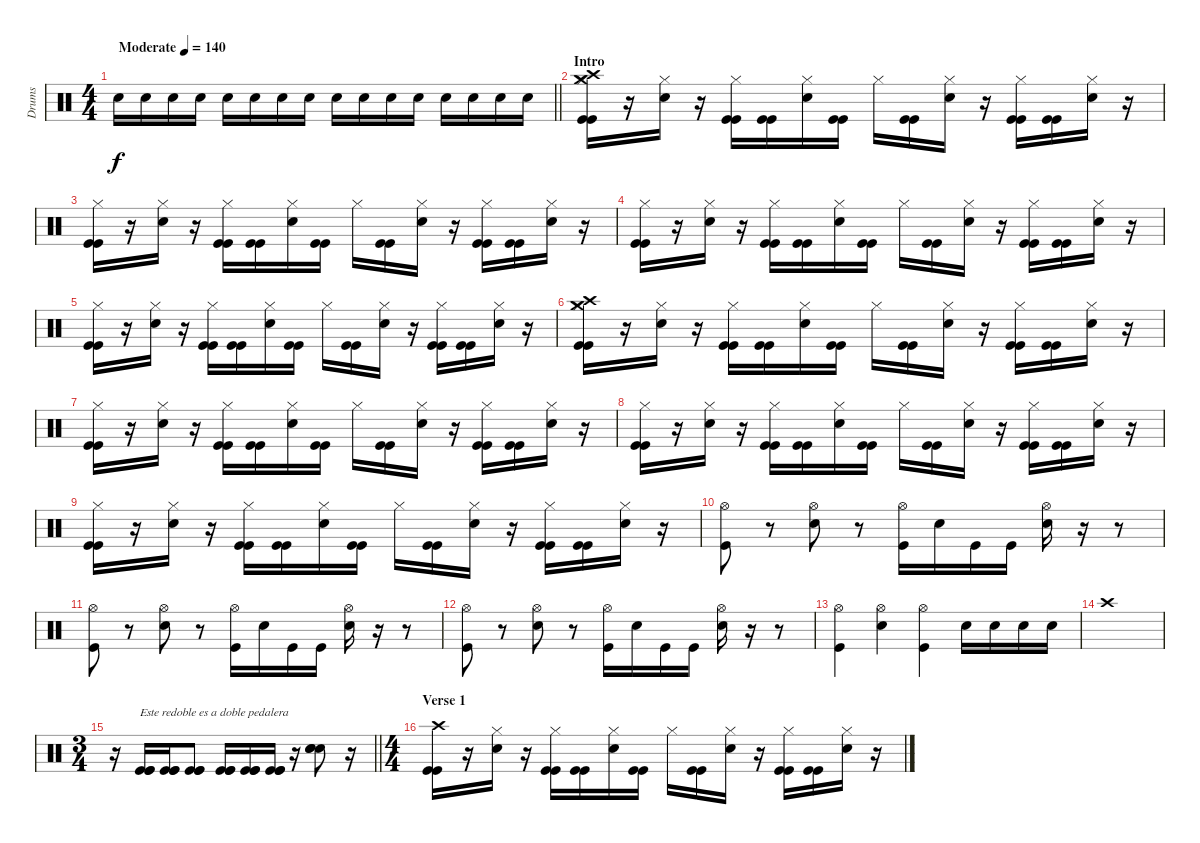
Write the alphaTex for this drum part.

\track ("Drums" "Drums") {instrument percussion}
\staff {score}
\articulation defaults
\ts (4 4)
\tempo (140 "Moderate")
\clef neutral
\barLineRight lightlight
\ks c "Snare (hit) 2".16{dy f} "Snare (hit) 2".16 "Snare (hit) 2".16 "Snare (hit) 2".16 "Snare (hit) 2".16 "Snare (hit) 2".16 "Snare (hit) 2".16 "Snare (hit) 2".16 "Snare (hit) 2".16 "Snare (hit) 2".16 "Snare (hit) 2".16 "Snare (hit) 2".16 "Snare (hit) 2".16 "Snare (hit) 2".16 "Snare (hit) 2".16 "Snare (hit) 2".16
|
\section ("" "Intro")
("Crash medium (hit)" "Crash high (hit)" "Hi-Hat (closed)" "Kick (hit)" "Kick (hit)").16 r.16 ("Hi-Hat (closed)" "Snare (hit) 2").16 r.16 ("Hi-Hat (closed)" "Kick (hit)" "Kick (hit)").16 ("Kick (hit)" "Kick (hit)").16 ("Hi-Hat (closed)" "Snare (hit) 2").16 ("Kick (hit)" "Kick (hit)").16 "Hi-Hat (closed)".16 ("Kick (hit)" "Kick (hit)").16 ("Hi-Hat (closed)" "Snare (hit) 2").16 r.16 ("Hi-Hat (closed)" "Kick (hit)" "Kick (hit)").16 ("Kick (hit)" "Kick (hit)").16 ("Hi-Hat (closed)" "Snare (hit) 2").16 r.16 |
("Hi-Hat (closed)" "Kick (hit)" "Kick (hit)").16 r.16 ("Hi-Hat (closed)" "Snare (hit) 2").16 r.16 ("Hi-Hat (closed)" "Kick (hit)" "Kick (hit)").16 ("Kick (hit)" "Kick (hit)").16 ("Hi-Hat (closed)" "Snare (hit) 2").16 ("Kick (hit)" "Kick (hit)").16 "Hi-Hat (closed)".16 ("Kick (hit)" "Kick (hit)").16 ("Hi-Hat (closed)" "Snare (hit) 2").16 r.16 ("Hi-Hat (closed)" "Kick (hit)" "Kick (hit)").16 ("Kick (hit)" "Kick (hit)").16 ("Hi-Hat (closed)" "Snare (hit) 2").16 r.16 |
("Hi-Hat (closed)" "Kick (hit)" "Kick (hit)").16 r.16 ("Hi-Hat (closed)" "Snare (hit) 2").16 r.16 ("Hi-Hat (closed)" "Kick (hit)" "Kick (hit)").16 ("Kick (hit)" "Kick (hit)").16 ("Hi-Hat (closed)" "Snare (hit) 2").16 ("Kick (hit)" "Kick (hit)").16 "Hi-Hat (closed)".16 ("Kick (hit)" "Kick (hit)").16 ("Hi-Hat (closed)" "Snare (hit) 2").16 r.16 ("Hi-Hat (closed)" "Kick (hit)" "Kick (hit)").16 ("Kick (hit)" "Kick (hit)").16 ("Hi-Hat (closed)" "Snare (hit) 2").16 r.16 |
("Hi-Hat (closed)" "Kick (hit)" "Kick (hit)").16 r.16 ("Hi-Hat (closed)" "Snare (hit) 2").16 r.16 ("Hi-Hat (closed)" "Kick (hit)" "Kick (hit)").16 ("Kick (hit)" "Kick (hit)").16 ("Hi-Hat (closed)" "Snare (hit) 2").16 ("Kick (hit)" "Kick (hit)").16 "Hi-Hat (closed)".16 ("Kick (hit)" "Kick (hit)").16 ("Hi-Hat (closed)" "Snare (hit) 2").16 r.16 ("Hi-Hat (closed)" "Kick (hit)" "Kick (hit)").16 ("Kick (hit)" "Kick (hit)").16 ("Hi-Hat (closed)" "Snare (hit) 2").16 r.16 |
("Crash medium (hit)" "Crash high (hit)" "Hi-Hat (closed)" "Kick (hit)" "Kick (hit)").16 r.16 ("Hi-Hat (closed)" "Snare (hit) 2").16 r.16 ("Hi-Hat (closed)" "Kick (hit)" "Kick (hit)").16 ("Kick (hit)" "Kick (hit)").16 ("Hi-Hat (closed)" "Snare (hit) 2").16 ("Kick (hit)" "Kick (hit)").16 "Hi-Hat (closed)".16 ("Kick (hit)" "Kick (hit)").16 ("Hi-Hat (closed)" "Snare (hit) 2").16 r.16 ("Hi-Hat (closed)" "Kick (hit)" "Kick (hit)").16 ("Kick (hit)" "Kick (hit)").16 ("Hi-Hat (closed)" "Snare (hit) 2").16 r.16 |
("Hi-Hat (closed)" "Kick (hit)" "Kick (hit)").16 r.16 ("Hi-Hat (closed)" "Snare (hit) 2").16 r.16 ("Hi-Hat (closed)" "Kick (hit)" "Kick (hit)").16 ("Kick (hit)" "Kick (hit)").16 ("Hi-Hat (closed)" "Snare (hit) 2").16 ("Kick (hit)" "Kick (hit)").16 "Hi-Hat (closed)".16 ("Kick (hit)" "Kick (hit)").16 ("Hi-Hat (closed)" "Snare (hit) 2").16 r.16 ("Hi-Hat (closed)" "Kick (hit)" "Kick (hit)").16 ("Kick (hit)" "Kick (hit)").16 ("Hi-Hat (closed)" "Snare (hit) 2").16 r.16 |
("Hi-Hat (closed)" "Kick (hit)" "Kick (hit)").16 r.16 ("Hi-Hat (closed)" "Snare (hit) 2").16 r.16 ("Hi-Hat (closed)" "Kick (hit)" "Kick (hit)").16 ("Kick (hit)" "Kick (hit)").16 ("Hi-Hat (closed)" "Snare (hit) 2").16 ("Kick (hit)" "Kick (hit)").16 "Hi-Hat (closed)".16 ("Kick (hit)" "Kick (hit)").16 ("Hi-Hat (closed)" "Snare (hit) 2").16 r.16 ("Hi-Hat (closed)" "Kick (hit)" "Kick (hit)").16 ("Kick (hit)" "Kick (hit)").16 ("Hi-Hat (closed)" "Snare (hit) 2").16 r.16 |
("Hi-Hat (closed)" "Kick (hit)" "Kick (hit)").16 r.16 ("Hi-Hat (closed)" "Snare (hit) 2").16 r.16 ("Hi-Hat (closed)" "Kick (hit)" "Kick (hit)").16 ("Kick (hit)" "Kick (hit)").16 ("Hi-Hat (closed)" "Snare (hit) 2").16 ("Kick (hit)" "Kick (hit)").16 "Hi-Hat (closed)".16 ("Kick (hit)" "Kick (hit)").16 ("Hi-Hat (closed)" "Snare (hit) 2").16 r.16 ("Hi-Hat (closed)" "Kick (hit)" "Kick (hit)").16 ("Kick (hit)" "Kick (hit)").16 ("Hi-Hat (closed)" "Snare (hit) 2").16 r.16 |
("Hi-Hat (open)" "Kick (hit)").8 r.8 ("Hi-Hat (open)" "Electric Snare (hit)").8 r.8 ("Hi-Hat (open)" "Kick (hit)").16 "Snare (hit) 2".16 "Kick (hit)".16 "Kick (hit)".16 ("Hi-Hat (open)" "Snare (hit) 2").16 r.16 r.8 |
("Hi-Hat (open)" "Kick (hit)").8 r.8 ("Hi-Hat (open)" "Electric Snare (hit)").8 r.8 ("Hi-Hat (open)" "Kick (hit)").16 "Snare (hit) 2".16 "Kick (hit)".16 "Kick (hit)".16 ("Hi-Hat (open)" "Snare (hit) 2").16 r.16 r.8 |
("Hi-Hat (open)" "Kick (hit)").8 r.8 ("Hi-Hat (open)" "Electric Snare (hit)").8 r.8 ("Hi-Hat (open)" "Kick (hit)").16 "Snare (hit) 2".16 "Kick (hit)".16 "Kick (hit)".16 ("Hi-Hat (open)" "Snare (hit) 2").16 r.16 r.8 |
("Hi-Hat (open)" "Kick (hit)").4 ("Hi-Hat (open)" "Snare (hit) 2").4 ("Hi-Hat (open)" "Kick (hit)").4 "Snare (hit) 2".16 "Snare (hit) 2".16 "Snare (hit) 2".16 "Snare (hit) 2".16 |
"Crash high (hit)".1 |
\ts (3 4)
\barLineRight lightlight
r.16 ("Kick (hit)" "Kick (hit)" "Kick (hit)").16{txt "Este redoble es a doble pedalera"} ("Kick (hit)" "Kick (hit)" "Kick (hit)").16 ("Kick (hit)" "Kick (hit)" "Kick (hit)").8 ("Kick (hit)" "Kick (hit)" "Kick (hit)").16 ("Kick (hit)" "Kick (hit)" "Kick (hit)").16 ("Kick (hit)" "Kick (hit)" "Kick (hit)").16 r.16 ("Snare (hit) 2" "Snare (hit) 2" "Snare (hit) 2").8 r.16 |
\ts (4 4)
\section ("" "Verse 1")
("Crash high (hit)" "Kick (hit)" "Kick (hit)").16 r.16 ("Hi-Hat (closed)" "Snare (hit) 2").16 r.16 ("Hi-Hat (closed)" "Kick (hit)" "Kick (hit)").16 ("Kick (hit)" "Kick (hit)").16 ("Hi-Hat (closed)" "Snare (hit) 2").16 ("Kick (hit)" "Kick (hit)").16 "Hi-Hat (closed)".16 ("Kick (hit)" "Kick (hit)").16 ("Hi-Hat (closed)" "Snare (hit) 2").16 r.16 ("Hi-Hat (closed)" "Kick (hit)" "Kick (hit)").16 ("Kick (hit)" "Kick (hit)").16 ("Hi-Hat (closed)" "Snare (hit) 2").16 r.16
